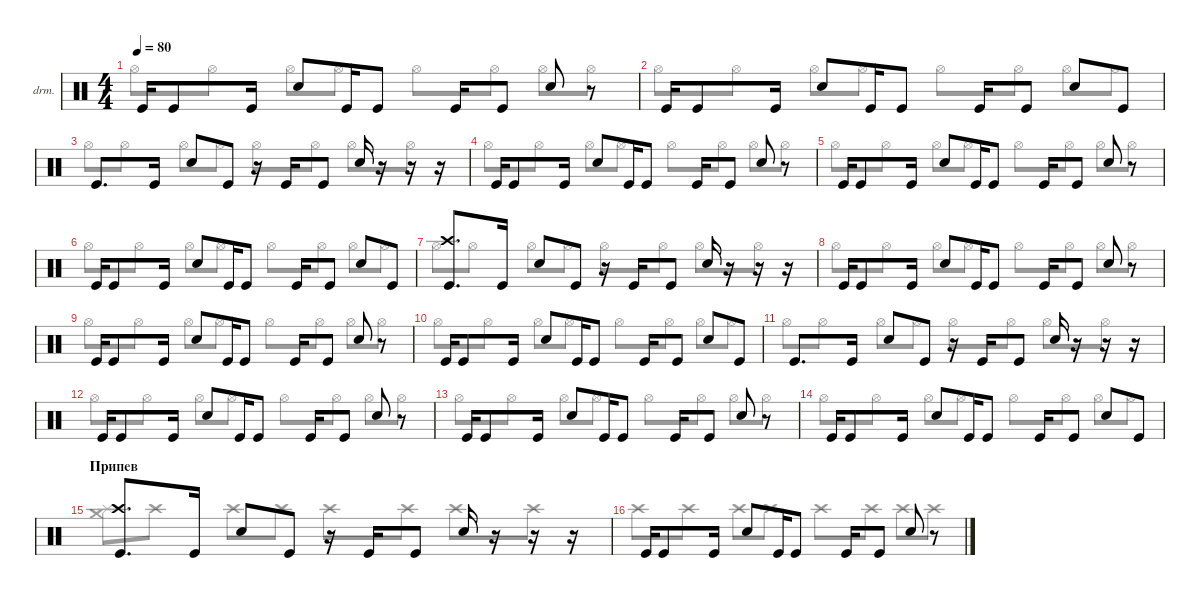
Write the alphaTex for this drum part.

\defaultSystemsLayout 4
\hideDynamics
\bracketExtendMode nobrackets
\firstSystemTrackNameOrientation horizontal
\otherSystemsTrackNameOrientation horizontal
\track ("Drumkit" "drm.") {instrument percussion}
\staff {score}
\articulation defaults
\voice
\ts (4 4)
\tempo 80
\clef neutral
\ks c "Kick (hit)".16{dy mf} "Kick (hit)".8 "Kick (hit)".16 "Snare (hit) 2".8 "Kick (hit)".16 "Kick (hit)".8 "Kick (hit)".16 "Kick (hit)".8 "Snare (hit) 2".8
r.8 |
"Kick (hit)".16 "Kick (hit)".8 "Kick (hit)".16 "Snare (hit) 2".8 "Kick (hit)".16 "Kick (hit)".8 "Kick (hit)".16 "Kick (hit)".8 "Snare (hit) 2".8 "Kick (hit)".8 |
"Kick (hit)".8{d} "Kick (hit)".16 "Snare (hit) 2".8 "Kick (hit)".8 r.16 "Kick (hit)".16 "Kick (hit)".8 "Snare (hit) 2".16 r.16 r.16 r.16 |
"Kick (hit)".16 "Kick (hit)".8 "Kick (hit)".16 "Snare (hit) 2".8 "Kick (hit)".16 "Kick (hit)".8 "Kick (hit)".16 "Kick (hit)".8 "Snare (hit) 2".8 r.8 |
"Kick (hit)".16 "Kick (hit)".8 "Kick (hit)".16 "Snare (hit) 2".8 "Kick (hit)".16 "Kick (hit)".8 "Kick (hit)".16 "Kick (hit)".8 "Snare (hit) 2".8 r.8 |
"Kick (hit)".16 "Kick (hit)".8 "Kick (hit)".16 "Snare (hit) 2".8 "Kick (hit)".16 "Kick (hit)".8 "Kick (hit)".16 "Kick (hit)".8 "Snare (hit) 2".8 "Kick (hit)".8 |
("Kick (hit)" "Crash high (hit)").8{d} "Kick (hit)".16 "Snare (hit) 2".8 "Kick (hit)".8 r.16 "Kick (hit)".16 "Kick (hit)".8 "Snare (hit) 2".16 r.16 r.16 r.16 |
"Kick (hit)".16 "Kick (hit)".8 "Kick (hit)".16 "Snare (hit) 2".8 "Kick (hit)".16 "Kick (hit)".8 "Kick (hit)".16 "Kick (hit)".8 "Snare (hit) 2".8 r.8 |
"Kick (hit)".16 "Kick (hit)".8 "Kick (hit)".16 "Snare (hit) 2".8 "Kick (hit)".16 "Kick (hit)".8 "Kick (hit)".16 "Kick (hit)".8 "Snare (hit) 2".8 r.8 |
"Kick (hit)".16 "Kick (hit)".8 "Kick (hit)".16 "Snare (hit) 2".8 "Kick (hit)".16 "Kick (hit)".8 "Kick (hit)".16 "Kick (hit)".8 "Snare (hit) 2".8 "Kick (hit)".8 |
"Kick (hit)".8{d} "Kick (hit)".16 "Snare (hit) 2".8 "Kick (hit)".8 r.16 "Kick (hit)".16 "Kick (hit)".8 "Snare (hit) 2".16 r.16 r.16 r.16 |
"Kick (hit)".16 "Kick (hit)".8 "Kick (hit)".16 "Snare (hit) 2".8 "Kick (hit)".16 "Kick (hit)".8 "Kick (hit)".16 "Kick (hit)".8 "Snare (hit) 2".8 r.8 |
"Kick (hit)".16 "Kick (hit)".8 "Kick (hit)".16 "Snare (hit) 2".8 "Kick (hit)".16 "Kick (hit)".8 "Kick (hit)".16 "Kick (hit)".8 "Snare (hit) 2".8 r.8 |
"Kick (hit)".16 "Kick (hit)".8 "Kick (hit)".16 "Snare (hit) 2".8 "Kick (hit)".16 "Kick (hit)".8 "Kick (hit)".16 "Kick (hit)".8 "Snare (hit) 2".8 "Kick (hit)".8 |
\section ("" "Припев")
("Kick (hit)" "Crash high (hit)").8{d} "Kick (hit)".16 "Snare (hit) 2".8 "Kick (hit)".8 r.16 "Kick (hit)".16 "Kick (hit)".8 "Snare (hit) 2".16 r.16 r.16 r.16 |
"Kick (hit)".16 "Kick (hit)".8 "Kick (hit)".16 "Snare (hit) 2".8 "Kick (hit)".16 "Kick (hit)".8 "Kick (hit)".16 "Kick (hit)".8 "Snare (hit) 2".8 r.8
\voice
\clef neutral
\ottava regular
\simile none
\ks c "Hi-Hat (open)".8{dy mf} "Hi-Hat (open)".8 "Hi-Hat (open)".8 "Hi-Hat (open)".8 "Hi-Hat (open)".8 "Hi-Hat (open)".8 "Hi-Hat (open)".8 "Hi-Hat (open)".8
|
"Hi-Hat (open)".8 "Hi-Hat (open)".8 "Hi-Hat (open)".8 "Hi-Hat (open)".8 "Hi-Hat (open)".8 "Hi-Hat (open)".8 "Hi-Hat (open)".8 "Hi-Hat (open)".8 |
"Hi-Hat (open)".8 "Hi-Hat (open)".8 "Hi-Hat (open)".8 "Hi-Hat (open)".8 "Hi-Hat (open)".8 "Hi-Hat (open)".8 "Hi-Hat (open)".8 "Hi-Hat (open)".8 |
"Hi-Hat (open)".8 "Hi-Hat (open)".8 "Hi-Hat (open)".8 "Hi-Hat (open)".8 "Hi-Hat (open)".8 "Hi-Hat (open)".8 "Hi-Hat (open)".8 "Hi-Hat (open)".8 |
"Hi-Hat (open)".8 "Hi-Hat (open)".8 "Hi-Hat (open)".8 "Hi-Hat (open)".8 "Hi-Hat (open)".8 "Hi-Hat (open)".8 "Hi-Hat (open)".8 "Hi-Hat (open)".8 |
"Hi-Hat (open)".8 "Hi-Hat (open)".8 "Hi-Hat (open)".8 "Hi-Hat (open)".8 "Hi-Hat (open)".8 "Hi-Hat (open)".8 "Hi-Hat (open)".8 "Hi-Hat (open)".8 |
"Hi-Hat (open)".8 "Hi-Hat (open)".8 "Hi-Hat (open)".8 "Hi-Hat (open)".8 "Hi-Hat (open)".8 "Hi-Hat (open)".8 "Hi-Hat (open)".8 "Hi-Hat (open)".8 |
"Hi-Hat (open)".8 "Hi-Hat (open)".8 "Hi-Hat (open)".8 "Hi-Hat (open)".8 "Hi-Hat (open)".8 "Hi-Hat (open)".8 "Hi-Hat (open)".8 "Hi-Hat (open)".8 |
"Hi-Hat (open)".8 "Hi-Hat (open)".8 "Hi-Hat (open)".8 "Hi-Hat (open)".8 "Hi-Hat (open)".8 "Hi-Hat (open)".8 "Hi-Hat (open)".8 "Hi-Hat (open)".8 |
"Hi-Hat (open)".8 "Hi-Hat (open)".8 "Hi-Hat (open)".8 "Hi-Hat (open)".8 "Hi-Hat (open)".8 "Hi-Hat (open)".8 "Hi-Hat (open)".8 "Hi-Hat (open)".8 |
"Hi-Hat (open)".8 "Hi-Hat (open)".8 "Hi-Hat (open)".8 "Hi-Hat (open)".8 "Hi-Hat (open)".8 "Hi-Hat (open)".8 "Hi-Hat (open)".8 "Hi-Hat (open)".8 |
"Hi-Hat (open)".8 "Hi-Hat (open)".8 "Hi-Hat (open)".8 "Hi-Hat (open)".8 "Hi-Hat (open)".8 "Hi-Hat (open)".8 "Hi-Hat (open)".8 "Hi-Hat (open)".8 |
"Hi-Hat (open)".8 "Hi-Hat (open)".8 "Hi-Hat (open)".8 "Hi-Hat (open)".8 "Hi-Hat (open)".8 "Hi-Hat (open)".8 "Hi-Hat (open)".8 "Hi-Hat (open)".8 |
"Hi-Hat (open)".8 "Hi-Hat (open)".8 "Hi-Hat (open)".8 "Hi-Hat (open)".8 "Hi-Hat (open)".8 "Hi-Hat (open)".8 "Hi-Hat (open)".8 "Hi-Hat (open)".8 |
("Splash (hit)" "Crash medium (hit)").8 "Crash high (hit)".8 "Crash high (hit)".8 "Crash high (hit)".8 "Crash high (hit)".8 "Crash high (hit)".8 "Crash high (hit)".8 "Crash high (hit)".8 |
"Crash high (hit)".8 "Crash high (hit)".8 "Crash high (hit)".8 "Crash high (hit)".8 "Crash high (hit)".8 "Crash high (hit)".8 "Crash high (hit)".8 "Crash high (hit)".8
